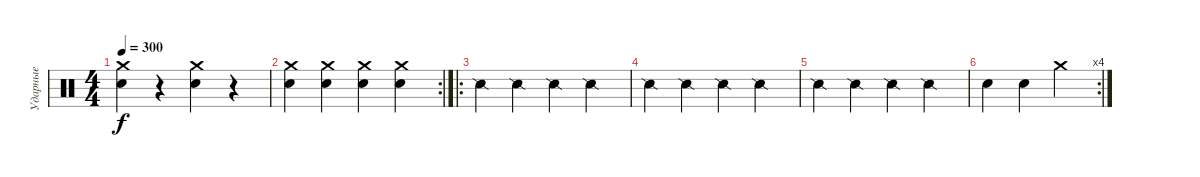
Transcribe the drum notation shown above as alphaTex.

\track ("Ударные" "Ударные") {instrument percussion}
\staff {score}
\articulation defaults
\ts (4 4)
\tempo 300
\clef neutral
\ks c
("Crash medium (hit)" "Electric Snare (hit)").4{dy f} r.4 ("Crash medium (hit)" "Electric Snare (hit)").4 r.4 |
\rc 2
("Crash medium (hit)" "Electric Snare (hit)").4 ("Crash medium (hit)" "Electric Snare (hit)").4 ("Crash medium (hit)" "Electric Snare (hit)").4 ("Crash medium (hit)" "Electric Snare (hit)").4 |
\ro "Snare (side stick) 2".4 "Snare (side stick) 2".4 "Snare (side stick) 2".4 "Snare (side stick) 2".4
|
"Snare (side stick) 2".4 "Snare (side stick) 2".4 "Snare (side stick) 2".4 "Snare (side stick) 2".4 |
"Snare (side stick) 2".4 "Snare (side stick) 2".4 "Snare (side stick) 2".4 "Snare (side stick) 2".4 |
\rc 4 "Electric Snare (hit)".4 "Electric Snare (hit)".4 "Crash medium (hit)".4
